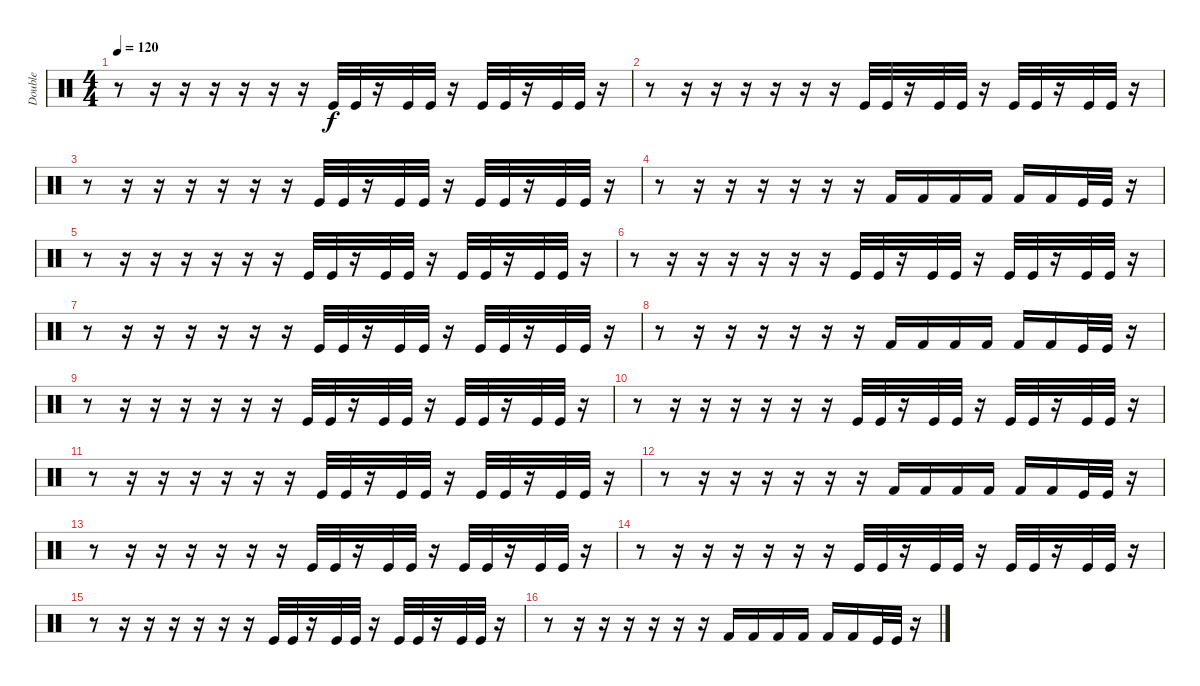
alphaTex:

\track ("Double" "Double") {instrument percussion}
\staff {score}
\articulation defaults
\ts (4 4)
\tempo 120
\clef neutral
\ks c
r.8{dy f} r.16 r.16 r.16 r.16 r.16 r.16 "Kick (hit)".32 "Kick (hit)".32 r.16 "Kick (hit)".32 "Kick (hit)".32 r.16 "Kick (hit)".32 "Kick (hit)".32 r.16 "Kick (hit)".32 "Kick (hit)".32 r.16 |
r.8 r.16 r.16 r.16 r.16 r.16 r.16 "Kick (hit)".32 "Kick (hit)".32 r.16 "Kick (hit)".32 "Kick (hit)".32 r.16 "Kick (hit)".32 "Kick (hit)".32 r.16 "Kick (hit)".32 "Kick (hit)".32 r.16 |
r.8 r.16 r.16 r.16 r.16 r.16 r.16 "Kick (hit)".32 "Kick (hit)".32 r.16 "Kick (hit)".32 "Kick (hit)".32 r.16 "Kick (hit)".32 "Kick (hit)".32 r.16 "Kick (hit)".32 "Kick (hit)".32 r.16 |
r.8 r.16 r.16 r.16 r.16 r.16 r.16 "Kick (hit) 2".16 "Kick (hit) 2".16 "Kick (hit) 2".16 "Kick (hit) 2".16 "Kick (hit) 2".16 "Kick (hit) 2".16 "Kick (hit)".32 "Kick (hit)".32 r.16 |
r.8 r.16 r.16 r.16 r.16 r.16 r.16 "Kick (hit)".32 "Kick (hit)".32 r.16 "Kick (hit)".32 "Kick (hit)".32 r.16 "Kick (hit)".32 "Kick (hit)".32 r.16 "Kick (hit)".32 "Kick (hit)".32 r.16 |
r.8 r.16 r.16 r.16 r.16 r.16 r.16 "Kick (hit)".32 "Kick (hit)".32 r.16 "Kick (hit)".32 "Kick (hit)".32 r.16 "Kick (hit)".32 "Kick (hit)".32 r.16 "Kick (hit)".32 "Kick (hit)".32 r.16 |
r.8 r.16 r.16 r.16 r.16 r.16 r.16 "Kick (hit)".32 "Kick (hit)".32 r.16 "Kick (hit)".32 "Kick (hit)".32 r.16 "Kick (hit)".32 "Kick (hit)".32 r.16 "Kick (hit)".32 "Kick (hit)".32 r.16 |
r.8 r.16 r.16 r.16 r.16 r.16 r.16 "Kick (hit) 2".16 "Kick (hit) 2".16 "Kick (hit) 2".16 "Kick (hit) 2".16 "Kick (hit) 2".16 "Kick (hit) 2".16 "Kick (hit)".32 "Kick (hit)".32 r.16 |
r.8 r.16 r.16 r.16 r.16 r.16 r.16 "Kick (hit)".32 "Kick (hit)".32 r.16 "Kick (hit)".32 "Kick (hit)".32 r.16 "Kick (hit)".32 "Kick (hit)".32 r.16 "Kick (hit)".32 "Kick (hit)".32 r.16 |
r.8 r.16 r.16 r.16 r.16 r.16 r.16 "Kick (hit)".32 "Kick (hit)".32 r.16 "Kick (hit)".32 "Kick (hit)".32 r.16 "Kick (hit)".32 "Kick (hit)".32 r.16 "Kick (hit)".32 "Kick (hit)".32 r.16 |
r.8 r.16 r.16 r.16 r.16 r.16 r.16 "Kick (hit)".32 "Kick (hit)".32 r.16 "Kick (hit)".32 "Kick (hit)".32 r.16 "Kick (hit)".32 "Kick (hit)".32 r.16 "Kick (hit)".32 "Kick (hit)".32 r.16 |
r.8 r.16 r.16 r.16 r.16 r.16 r.16 "Kick (hit) 2".16 "Kick (hit) 2".16 "Kick (hit) 2".16 "Kick (hit) 2".16 "Kick (hit) 2".16 "Kick (hit) 2".16 "Kick (hit)".32 "Kick (hit)".32 r.16 |
r.8 r.16 r.16 r.16 r.16 r.16 r.16 "Kick (hit)".32 "Kick (hit)".32 r.16 "Kick (hit)".32 "Kick (hit)".32 r.16 "Kick (hit)".32 "Kick (hit)".32 r.16 "Kick (hit)".32 "Kick (hit)".32 r.16 |
r.8 r.16 r.16 r.16 r.16 r.16 r.16 "Kick (hit)".32 "Kick (hit)".32 r.16 "Kick (hit)".32 "Kick (hit)".32 r.16 "Kick (hit)".32 "Kick (hit)".32 r.16 "Kick (hit)".32 "Kick (hit)".32 r.16 |
r.8 r.16 r.16 r.16 r.16 r.16 r.16 "Kick (hit)".32 "Kick (hit)".32 r.16 "Kick (hit)".32 "Kick (hit)".32 r.16 "Kick (hit)".32 "Kick (hit)".32 r.16 "Kick (hit)".32 "Kick (hit)".32 r.16 |
r.8 r.16 r.16 r.16 r.16 r.16 r.16 "Kick (hit) 2".16 "Kick (hit) 2".16 "Kick (hit) 2".16 "Kick (hit) 2".16 "Kick (hit) 2".16 "Kick (hit) 2".16 "Kick (hit)".32 "Kick (hit)".32 r.16
